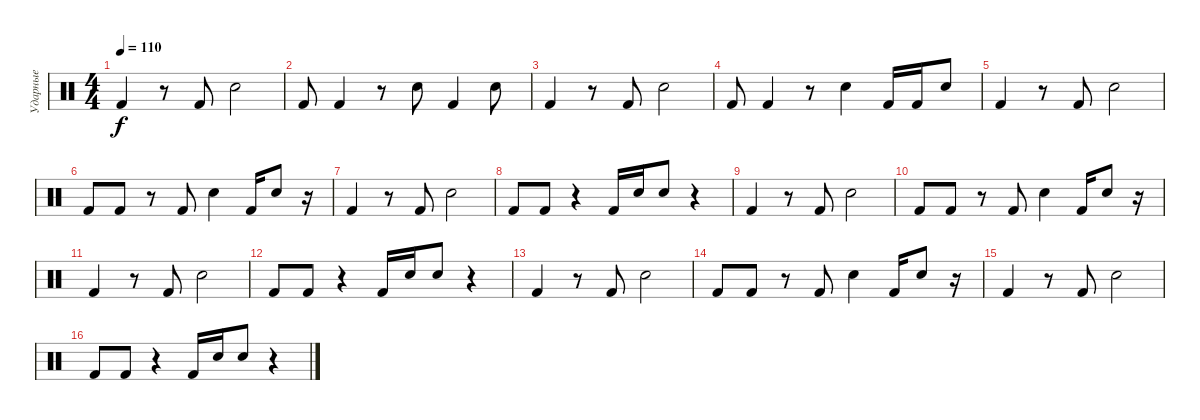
\track ("Ударные" "Ударные") {instrument percussion}
\staff {score}
\articulation defaults
\ts (4 4)
\tempo 110
\clef neutral
\ks c "Kick (hit) 2".4{dy f}
r.8 "Kick (hit) 2".8 "Snare (hit) 2".2 |
"Kick (hit) 2".8 "Kick (hit) 2".4 r.8 "Snare (hit) 2".8 "Kick (hit) 2".4 "Snare (hit) 2".8 |
"Kick (hit) 2".4 r.8 "Kick (hit) 2".8 "Snare (hit) 2".2 |
"Kick (hit) 2".8 "Kick (hit) 2".4 r.8 "Snare (hit) 2".4 "Kick (hit) 2".16 "Kick (hit) 2".16 "Snare (hit) 2".8 |
"Kick (hit) 2".4 r.8 "Kick (hit) 2".8 "Snare (hit) 2".2 |
"Kick (hit) 2".8 "Kick (hit) 2".8 r.8 "Kick (hit) 2".8 "Snare (hit) 2".4 "Kick (hit) 2".16 "Snare (hit) 2".8 r.16 |
"Kick (hit) 2".4 r.8 "Kick (hit) 2".8 "Snare (hit) 2".2 |
"Kick (hit) 2".8 "Kick (hit) 2".8 r.4 "Kick (hit) 2".16 "Snare (hit) 2".16 "Snare (hit) 2".8 r.4 |
"Kick (hit) 2".4 r.8 "Kick (hit) 2".8 "Snare (hit) 2".2 |
"Kick (hit) 2".8 "Kick (hit) 2".8 r.8 "Kick (hit) 2".8 "Snare (hit) 2".4 "Kick (hit) 2".16 "Snare (hit) 2".8 r.16 |
"Kick (hit) 2".4 r.8 "Kick (hit) 2".8 "Snare (hit) 2".2 |
"Kick (hit) 2".8 "Kick (hit) 2".8 r.4 "Kick (hit) 2".16 "Snare (hit) 2".16 "Snare (hit) 2".8 r.4 |
"Kick (hit) 2".4 r.8 "Kick (hit) 2".8 "Snare (hit) 2".2 |
"Kick (hit) 2".8 "Kick (hit) 2".8 r.8 "Kick (hit) 2".8 "Snare (hit) 2".4 "Kick (hit) 2".16 "Snare (hit) 2".8 r.16 |
"Kick (hit) 2".4 r.8 "Kick (hit) 2".8 "Snare (hit) 2".2 |
"Kick (hit) 2".8 "Kick (hit) 2".8 r.4 "Kick (hit) 2".16 "Snare (hit) 2".16 "Snare (hit) 2".8 r.4
